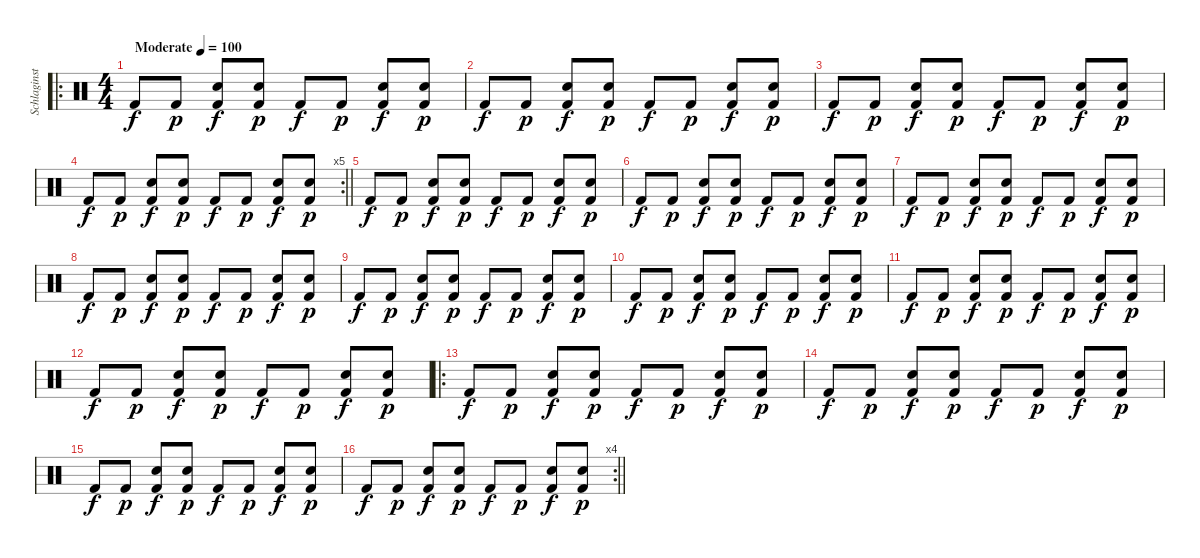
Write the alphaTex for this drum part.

\track ("Schlaginstrumente - Auswahl" "Schlaginst") {instrument percussion}
\staff {score}
\articulation defaults
\ro
\ts (4 4)
\tempo (100 "Moderate")
\clef neutral
\ks c "Kick (hit) 2".8{dy f} "Kick (hit) 2".8{dy p}
("Electric Snare (hit)" "Kick (hit) 2").8{dy f} ("Electric Snare (hit)" "Kick (hit) 2").8{dy p} "Kick (hit) 2".8{dy f} "Kick (hit) 2".8{dy p} ("Electric Snare (hit)" "Kick (hit) 2").8{dy f} ("Electric Snare (hit)" "Kick (hit) 2").8{dy p} |
"Kick (hit) 2".8{dy f} "Kick (hit) 2".8{dy p} ("Electric Snare (hit)" "Kick (hit) 2").8{dy f} ("Electric Snare (hit)" "Kick (hit) 2").8{dy p} "Kick (hit) 2".8{dy f} "Kick (hit) 2".8{dy p} ("Electric Snare (hit)" "Kick (hit) 2").8{dy f} ("Electric Snare (hit)" "Kick (hit) 2").8{dy p} |
"Kick (hit) 2".8{dy f} "Kick (hit) 2".8{dy p} ("Electric Snare (hit)" "Kick (hit) 2").8{dy f} ("Electric Snare (hit)" "Kick (hit) 2").8{dy p} "Kick (hit) 2".8{dy f} "Kick (hit) 2".8{dy p} ("Electric Snare (hit)" "Kick (hit) 2").8{dy f} ("Electric Snare (hit)" "Kick (hit) 2").8{dy p} |
\rc 5
\barLineRight lightlight "Kick (hit) 2".8{dy f} "Kick (hit) 2".8{dy p}
("Electric Snare (hit)" "Kick (hit) 2").8{dy f} ("Electric Snare (hit)" "Kick (hit) 2").8{dy p} "Kick (hit) 2".8{dy f} "Kick (hit) 2".8{dy p} ("Electric Snare (hit)" "Kick (hit) 2").8{dy f} ("Electric Snare (hit)" "Kick (hit) 2").8{dy p} |
"Kick (hit) 2".8{dy f} "Kick (hit) 2".8{dy p} ("Electric Snare (hit)" "Kick (hit) 2").8{dy f} ("Electric Snare (hit)" "Kick (hit) 2").8{dy p} "Kick (hit) 2".8{dy f} "Kick (hit) 2".8{dy p} ("Electric Snare (hit)" "Kick (hit) 2").8{dy f} ("Electric Snare (hit)" "Kick (hit) 2").8{dy p} |
"Kick (hit) 2".8{dy f} "Kick (hit) 2".8{dy p} ("Electric Snare (hit)" "Kick (hit) 2").8{dy f} ("Electric Snare (hit)" "Kick (hit) 2").8{dy p} "Kick (hit) 2".8{dy f} "Kick (hit) 2".8{dy p} ("Electric Snare (hit)" "Kick (hit) 2").8{dy f} ("Electric Snare (hit)" "Kick (hit) 2").8{dy p} |
"Kick (hit) 2".8{dy f} "Kick (hit) 2".8{dy p} ("Electric Snare (hit)" "Kick (hit) 2").8{dy f} ("Electric Snare (hit)" "Kick (hit) 2").8{dy p} "Kick (hit) 2".8{dy f} "Kick (hit) 2".8{dy p} ("Electric Snare (hit)" "Kick (hit) 2").8{dy f} ("Electric Snare (hit)" "Kick (hit) 2").8{dy p} |
"Kick (hit) 2".8{dy f} "Kick (hit) 2".8{dy p} ("Electric Snare (hit)" "Kick (hit) 2").8{dy f} ("Electric Snare (hit)" "Kick (hit) 2").8{dy p} "Kick (hit) 2".8{dy f} "Kick (hit) 2".8{dy p} ("Electric Snare (hit)" "Kick (hit) 2").8{dy f} ("Electric Snare (hit)" "Kick (hit) 2").8{dy p} |
"Kick (hit) 2".8{dy f} "Kick (hit) 2".8{dy p} ("Electric Snare (hit)" "Kick (hit) 2").8{dy f} ("Electric Snare (hit)" "Kick (hit) 2").8{dy p} "Kick (hit) 2".8{dy f} "Kick (hit) 2".8{dy p} ("Electric Snare (hit)" "Kick (hit) 2").8{dy f} ("Electric Snare (hit)" "Kick (hit) 2").8{dy p} |
"Kick (hit) 2".8{dy f} "Kick (hit) 2".8{dy p} ("Electric Snare (hit)" "Kick (hit) 2").8{dy f} ("Electric Snare (hit)" "Kick (hit) 2").8{dy p} "Kick (hit) 2".8{dy f} "Kick (hit) 2".8{dy p} ("Electric Snare (hit)" "Kick (hit) 2").8{dy f} ("Electric Snare (hit)" "Kick (hit) 2").8{dy p} |
"Kick (hit) 2".8{dy f} "Kick (hit) 2".8{dy p} ("Electric Snare (hit)" "Kick (hit) 2").8{dy f} ("Electric Snare (hit)" "Kick (hit) 2").8{dy p} "Kick (hit) 2".8{dy f} "Kick (hit) 2".8{dy p} ("Electric Snare (hit)" "Kick (hit) 2").8{dy f} ("Electric Snare (hit)" "Kick (hit) 2").8{dy p} |
"Kick (hit) 2".8{dy f} "Kick (hit) 2".8{dy p} ("Electric Snare (hit)" "Kick (hit) 2").8{dy f} ("Electric Snare (hit)" "Kick (hit) 2").8{dy p} "Kick (hit) 2".8{dy f} "Kick (hit) 2".8{dy p} ("Electric Snare (hit)" "Kick (hit) 2").8{dy f} ("Electric Snare (hit)" "Kick (hit) 2").8{dy p} |
\ro "Kick (hit) 2".8{dy f} "Kick (hit) 2".8{dy p}
("Electric Snare (hit)" "Kick (hit) 2").8{dy f} ("Electric Snare (hit)" "Kick (hit) 2").8{dy p} "Kick (hit) 2".8{dy f} "Kick (hit) 2".8{dy p} ("Electric Snare (hit)" "Kick (hit) 2").8{dy f} ("Electric Snare (hit)" "Kick (hit) 2").8{dy p} |
"Kick (hit) 2".8{dy f} "Kick (hit) 2".8{dy p} ("Electric Snare (hit)" "Kick (hit) 2").8{dy f} ("Electric Snare (hit)" "Kick (hit) 2").8{dy p} "Kick (hit) 2".8{dy f} "Kick (hit) 2".8{dy p} ("Electric Snare (hit)" "Kick (hit) 2").8{dy f} ("Electric Snare (hit)" "Kick (hit) 2").8{dy p} |
"Kick (hit) 2".8{dy f} "Kick (hit) 2".8{dy p} ("Electric Snare (hit)" "Kick (hit) 2").8{dy f} ("Electric Snare (hit)" "Kick (hit) 2").8{dy p} "Kick (hit) 2".8{dy f} "Kick (hit) 2".8{dy p} ("Electric Snare (hit)" "Kick (hit) 2").8{dy f} ("Electric Snare (hit)" "Kick (hit) 2").8{dy p} |
\rc 4
\barLineRight lightlight "Kick (hit) 2".8{dy f} "Kick (hit) 2".8{dy p}
("Electric Snare (hit)" "Kick (hit) 2").8{dy f} ("Electric Snare (hit)" "Kick (hit) 2").8{dy p} "Kick (hit) 2".8{dy f} "Kick (hit) 2".8{dy p} ("Electric Snare (hit)" "Kick (hit) 2").8{dy f} ("Electric Snare (hit)" "Kick (hit) 2").8{dy p}
